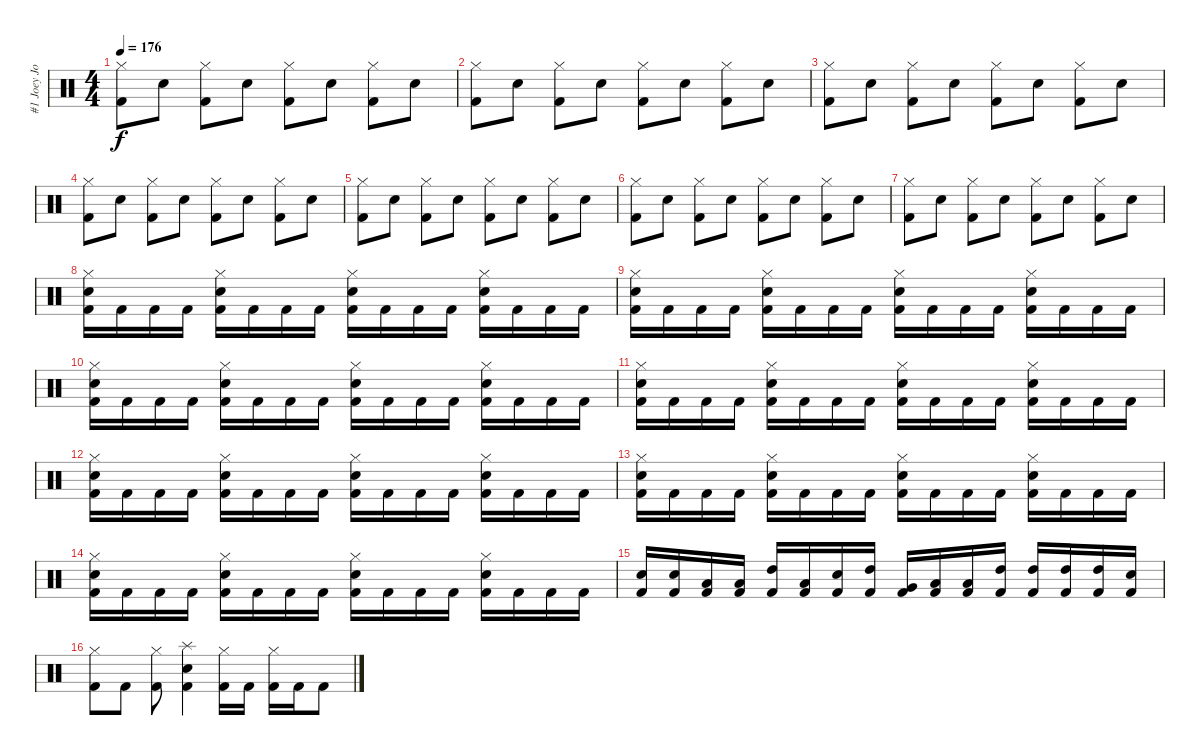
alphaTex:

\track ("#1 Joey Jordison - Drums" "#1 Joey Jo") {instrument percussion}
\staff {score}
\articulation defaults
\ts (4 4)
\tempo 176
\clef neutral
\ks c
("Hi-Hat (closed)" "Kick (hit) 2").8{dy f} "Snare (hit) 2".8 ("Hi-Hat (closed)" "Kick (hit) 2").8 "Snare (hit) 2".8 ("Hi-Hat (closed)" "Kick (hit) 2").8 "Snare (hit) 2".8 ("Hi-Hat (closed)" "Kick (hit) 2").8 "Snare (hit) 2".8 |
("Hi-Hat (closed)" "Kick (hit) 2").8 "Snare (hit) 2".8 ("Hi-Hat (closed)" "Kick (hit) 2").8 "Snare (hit) 2".8 ("Hi-Hat (closed)" "Kick (hit) 2").8 "Snare (hit) 2".8 ("Hi-Hat (closed)" "Kick (hit) 2").8 "Snare (hit) 2".8 |
("Hi-Hat (closed)" "Kick (hit) 2").8 "Snare (hit) 2".8 ("Hi-Hat (closed)" "Kick (hit) 2").8 "Snare (hit) 2".8 ("Hi-Hat (closed)" "Kick (hit) 2").8 "Snare (hit) 2".8 ("Hi-Hat (closed)" "Kick (hit) 2").8 "Snare (hit) 2".8 |
("Hi-Hat (closed)" "Kick (hit) 2").8 "Snare (hit) 2".8 ("Hi-Hat (closed)" "Kick (hit) 2").8 "Snare (hit) 2".8 ("Hi-Hat (closed)" "Kick (hit) 2").8 "Snare (hit) 2".8 ("Hi-Hat (closed)" "Kick (hit) 2").8 "Snare (hit) 2".8 |
("Hi-Hat (closed)" "Kick (hit) 2").8 "Snare (hit) 2".8 ("Hi-Hat (closed)" "Kick (hit) 2").8 "Snare (hit) 2".8 ("Hi-Hat (closed)" "Kick (hit) 2").8 "Snare (hit) 2".8 ("Hi-Hat (closed)" "Kick (hit) 2").8 "Snare (hit) 2".8 |
("Hi-Hat (closed)" "Kick (hit) 2").8 "Snare (hit) 2".8 ("Hi-Hat (closed)" "Kick (hit) 2").8 "Snare (hit) 2".8 ("Hi-Hat (closed)" "Kick (hit) 2").8 "Snare (hit) 2".8 ("Hi-Hat (closed)" "Kick (hit) 2").8 "Snare (hit) 2".8 |
("Hi-Hat (closed)" "Kick (hit) 2").8 "Snare (hit) 2".8 ("Hi-Hat (closed)" "Kick (hit) 2").8 "Snare (hit) 2".8 ("Hi-Hat (closed)" "Kick (hit) 2").8 "Snare (hit) 2".8 ("Hi-Hat (closed)" "Kick (hit) 2").8 "Snare (hit) 2".8 |
("Hi-Hat (closed)" "Snare (hit) 2" "Kick (hit) 2").16 "Kick (hit) 2".16 "Kick (hit) 2".16 "Kick (hit) 2".16 ("Hi-Hat (closed)" "Snare (hit) 2" "Kick (hit) 2").16 "Kick (hit) 2".16 "Kick (hit) 2".16 "Kick (hit) 2".16 ("Hi-Hat (closed)" "Snare (hit) 2" "Kick (hit) 2").16 "Kick (hit) 2".16 "Kick (hit) 2".16 "Kick (hit) 2".16 ("Hi-Hat (closed)" "Snare (hit) 2" "Kick (hit) 2").16 "Kick (hit) 2".16 "Kick (hit) 2".16 "Kick (hit) 2".16 |
("Hi-Hat (closed)" "Snare (hit) 2" "Kick (hit) 2").16 "Kick (hit) 2".16 "Kick (hit) 2".16 "Kick (hit) 2".16 ("Hi-Hat (closed)" "Snare (hit) 2" "Kick (hit) 2").16 "Kick (hit) 2".16 "Kick (hit) 2".16 "Kick (hit) 2".16 ("Hi-Hat (closed)" "Snare (hit) 2" "Kick (hit) 2").16 "Kick (hit) 2".16 "Kick (hit) 2".16 "Kick (hit) 2".16 ("Hi-Hat (closed)" "Snare (hit) 2" "Kick (hit) 2").16 "Kick (hit) 2".16 "Kick (hit) 2".16 "Kick (hit) 2".16 |
("Hi-Hat (closed)" "Snare (hit) 2" "Kick (hit) 2").16 "Kick (hit) 2".16 "Kick (hit) 2".16 "Kick (hit) 2".16 ("Hi-Hat (closed)" "Snare (hit) 2" "Kick (hit) 2").16 "Kick (hit) 2".16 "Kick (hit) 2".16 "Kick (hit) 2".16 ("Hi-Hat (closed)" "Snare (hit) 2" "Kick (hit) 2").16 "Kick (hit) 2".16 "Kick (hit) 2".16 "Kick (hit) 2".16 ("Hi-Hat (closed)" "Snare (hit) 2" "Kick (hit) 2").16 "Kick (hit) 2".16 "Kick (hit) 2".16 "Kick (hit) 2".16 |
("Hi-Hat (closed)" "Snare (hit) 2" "Kick (hit) 2").16 "Kick (hit) 2".16 "Kick (hit) 2".16 "Kick (hit) 2".16 ("Hi-Hat (closed)" "Snare (hit) 2" "Kick (hit) 2").16 "Kick (hit) 2".16 "Kick (hit) 2".16 "Kick (hit) 2".16 ("Hi-Hat (closed)" "Snare (hit) 2" "Kick (hit) 2").16 "Kick (hit) 2".16 "Kick (hit) 2".16 "Kick (hit) 2".16 ("Hi-Hat (closed)" "Snare (hit) 2" "Kick (hit) 2").16 "Kick (hit) 2".16 "Kick (hit) 2".16 "Kick (hit) 2".16 |
("Hi-Hat (closed)" "Snare (hit) 2" "Kick (hit) 2").16 "Kick (hit) 2".16 "Kick (hit) 2".16 "Kick (hit) 2".16 ("Hi-Hat (closed)" "Snare (hit) 2" "Kick (hit) 2").16 "Kick (hit) 2".16 "Kick (hit) 2".16 "Kick (hit) 2".16 ("Hi-Hat (closed)" "Snare (hit) 2" "Kick (hit) 2").16 "Kick (hit) 2".16 "Kick (hit) 2".16 "Kick (hit) 2".16 ("Hi-Hat (closed)" "Snare (hit) 2" "Kick (hit) 2").16 "Kick (hit) 2".16 "Kick (hit) 2".16 "Kick (hit) 2".16 |
("Hi-Hat (closed)" "Snare (hit) 2" "Kick (hit) 2").16 "Kick (hit) 2".16 "Kick (hit) 2".16 "Kick (hit) 2".16 ("Hi-Hat (closed)" "Snare (hit) 2" "Kick (hit) 2").16 "Kick (hit) 2".16 "Kick (hit) 2".16 "Kick (hit) 2".16 ("Hi-Hat (closed)" "Snare (hit) 2" "Kick (hit) 2").16 "Kick (hit) 2".16 "Kick (hit) 2".16 "Kick (hit) 2".16 ("Hi-Hat (closed)" "Snare (hit) 2" "Kick (hit) 2").16 "Kick (hit) 2".16 "Kick (hit) 2".16 "Kick (hit) 2".16 |
("Hi-Hat (closed)" "Snare (hit) 2" "Kick (hit) 2").16 "Kick (hit) 2".16 "Kick (hit) 2".16 "Kick (hit) 2".16 ("Hi-Hat (closed)" "Snare (hit) 2" "Kick (hit) 2").16 "Kick (hit) 2".16 "Kick (hit) 2".16 "Kick (hit) 2".16 ("Hi-Hat (closed)" "Snare (hit) 2" "Kick (hit) 2").16 "Kick (hit) 2".16 "Kick (hit) 2".16 "Kick (hit) 2".16 ("Hi-Hat (closed)" "Snare (hit) 2" "Kick (hit) 2").16 "Kick (hit) 2".16 "Kick (hit) 2".16 "Kick (hit) 2".16 |
("Snare (hit) 2" "Kick (hit) 2").16 ("Snare (hit) 2" "Kick (hit) 2").16 ("Low Tom (hit)" "Kick (hit) 2").16 ("Low Tom (hit)" "Kick (hit) 2").16 ("High Tom (hit)" "Kick (hit) 2").16 ("Low Tom (hit)" "Kick (hit) 2").16 ("Snare (hit) 2" "Kick (hit) 2").16 ("High Tom (hit)" "Kick (hit) 2").16 ("Very Low Tom (hit)" "Kick (hit) 2").16 ("Low Tom (hit)" "Kick (hit) 2").16 ("Low Tom (hit)" "Kick (hit) 2").16 ("High Tom (hit)" "Kick (hit) 2").16 ("High Tom (hit)" "Kick (hit) 2").16 ("High Tom (hit)" "Kick (hit) 2").16 ("High Tom (hit)" "Kick (hit) 2").16 ("Snare (hit) 2" "Kick (hit) 2").16 |
("Hi-Hat (closed)" "Kick (hit) 2").8 "Kick (hit) 2".8 ("Hi-Hat (closed)" "Kick (hit) 2").8 ("Splash (hit)" "Snare (hit) 2" "Kick (hit) 2").4 ("Hi-Hat (closed)" "Kick (hit) 2").16 "Kick (hit) 2".16 ("Hi-Hat (closed)" "Kick (hit) 2").16 "Kick (hit) 2".16 "Kick (hit) 2".8
